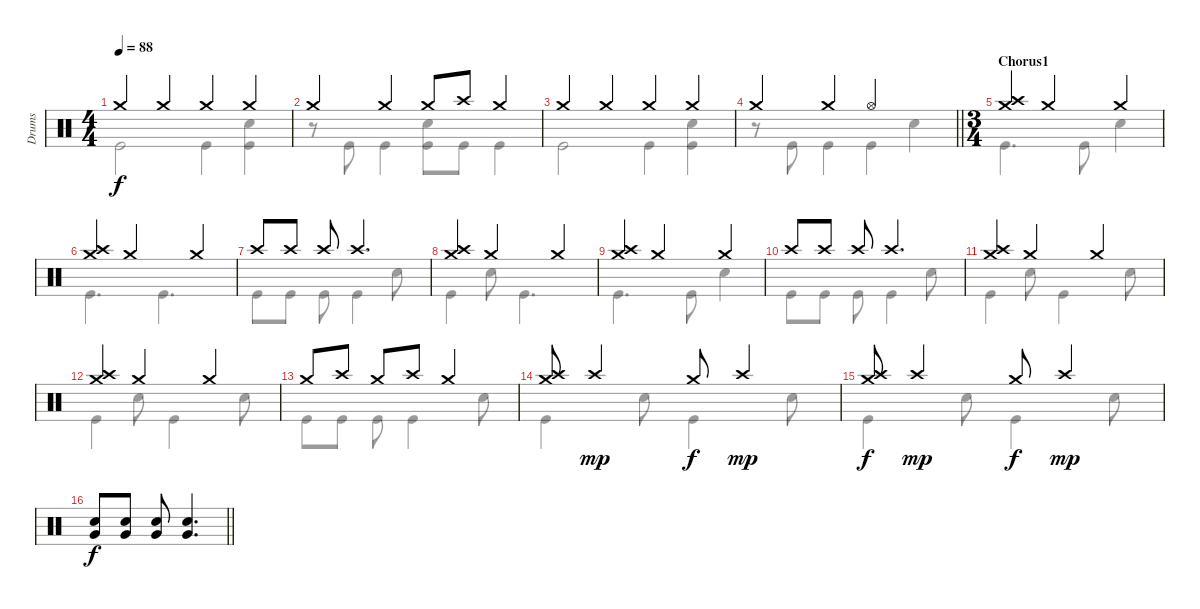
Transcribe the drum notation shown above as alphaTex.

\track ("Drums" "Drums") {instrument percussion}
\staff {score}
\articulation defaults
\voice
\ts (4 4)
\tempo 88
\clef neutral
\ks c "Crash medium (hit)".4{dy f} "Crash medium (hit)".4 "Crash medium (hit)".4 "Crash medium (hit)".4
|
"Crash medium (hit)".4 "Crash medium (hit)".4 "Crash medium (hit)".8 "Crash high (hit)".8 "Crash medium (hit)".4 |
"Crash medium (hit)".4 "Crash medium (hit)".4 "Crash medium (hit)".4 "Crash medium (hit)".4 |
\barLineRight lightlight "Crash medium (hit)".4 "Crash medium (hit)".4 "Hi-Hat (open)".2
|
\ts (3 4)
\section ("" "Chorus1")
("Crash medium (hit)" "Crash high (hit)").4 "Crash medium (hit)".4 "Crash medium (hit)".4 |
("Crash medium (hit)" "Crash high (hit)").4 "Crash medium (hit)".4 "Crash medium (hit)".4 |
"Crash high (hit)".8 "Crash high (hit)".8 "Crash high (hit)".8 "Crash high (hit)".4{d} |
("Crash medium (hit)" "Crash high (hit)").4 "Crash medium (hit)".4 "Crash medium (hit)".4 |
("Crash medium (hit)" "Crash high (hit)").4 "Crash medium (hit)".4 "Crash medium (hit)".4 |
"Crash high (hit)".8 "Crash high (hit)".8 "Crash high (hit)".8 "Crash high (hit)".4{d} |
("Crash medium (hit)" "Crash high (hit)").4 "Crash medium (hit)".4 "Crash medium (hit)".4 |
("Crash medium (hit)" "Crash high (hit)").4 "Crash medium (hit)".4 "Crash medium (hit)".4 |
"Crash medium (hit)".8 "Crash high (hit)".8 "Crash medium (hit)".8 "Crash high (hit)".8 "Crash medium (hit)".4 |
("Crash medium (hit)" "Crash high (hit)").8 "Crash high (hit)".4{dy mp} "Crash medium (hit)".8{dy f} "Crash high (hit)".4{dy mp} |
("Crash medium (hit)" "Crash high (hit)").8{dy f} "Crash high (hit)".4{dy mp} "Crash medium (hit)".8{dy f} "Crash high (hit)".4{dy mp} |
\barLineRight lightlight
("Snare (hit) 2" "Very Low Tom (hit)").8{dy f} ("Snare (hit) 2" "Very Low Tom (hit)").8 ("Snare (hit) 2" "Very Low Tom (hit)").8 ("Snare (hit) 2" "Very Low Tom (hit)").4{d}
\voice
\clef neutral
\ottava regular
\simile none
\ks c "Kick (hit)".2{dy f} "Kick (hit)".4
("Snare (hit) 2" "Kick (hit)").4 |
r.8 "Kick (hit)".8 "Kick (hit)".4 ("Snare (hit) 2" "Kick (hit)").8 "Kick (hit)".8 "Kick (hit)".4 |
"Kick (hit)".2 "Kick (hit)".4 ("Snare (hit) 2" "Kick (hit)").4 |
\barLineRight lightlight
r.8 "Kick (hit)".8 "Kick (hit)".4 "Kick (hit)".4 "Snare (hit) 2".4 |
"Kick (hit)".4{d} "Kick (hit)".8 "Snare (hit) 2".4 |
"Kick (hit)".4{d} "Kick (hit)".4{d} |
"Kick (hit)".8 "Kick (hit)".8 "Kick (hit)".8 "Kick (hit)".4 "Snare (hit) 2".8 |
"Kick (hit)".4 "Snare (hit) 2".8 "Kick (hit)".4{d} |
"Kick (hit)".4{d} "Kick (hit)".8 "Snare (hit) 2".4 |
"Kick (hit)".8 "Kick (hit)".8 "Kick (hit)".8 "Kick (hit)".4 "Snare (hit) 2".8 |
"Kick (hit)".4 "Snare (hit) 2".8 "Kick (hit)".4 "Snare (hit) 2".8 |
"Kick (hit)".4 "Snare (hit) 2".8 "Kick (hit)".4 "Snare (hit) 2".8 |
"Kick (hit)".8 "Kick (hit)".8 "Kick (hit)".8 "Kick (hit)".4 "Snare (hit) 2".8 |
"Kick (hit)".4 "Snare (hit) 2".8 "Kick (hit)".4 "Snare (hit) 2".8 |
"Kick (hit)".4 "Snare (hit) 2".8 "Kick (hit)".4 "Snare (hit) 2".8 |
\barLineRight lightlight
